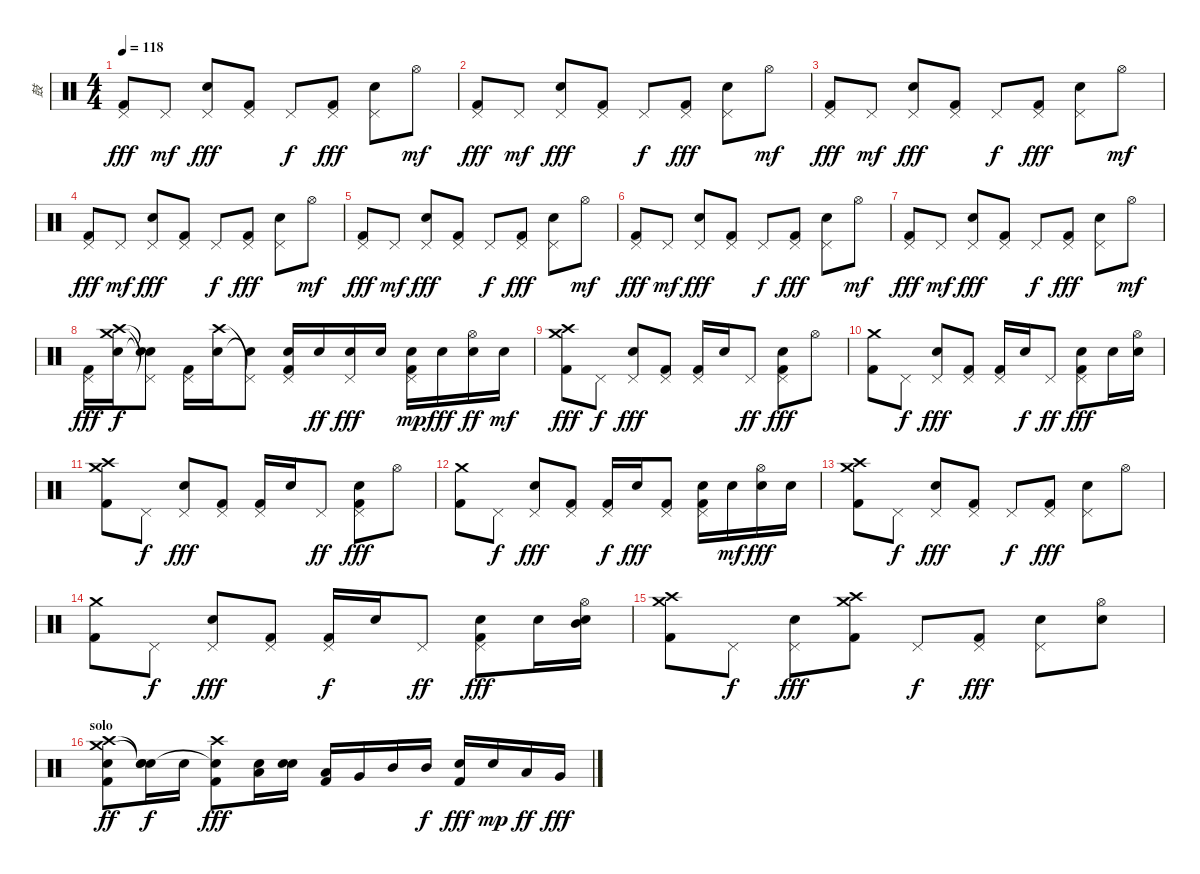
\track ("鼓" "鼓") {instrument percussion}
\staff {score}
\articulation defaults
\ts (4 4)
\tempo 118
\clef neutral
\ks c
("Pedal Hi-Hat (hit)" "Kick (hit) 2").8{dy fff} "Pedal Hi-Hat (hit)".8{dy mf} ("Pedal Hi-Hat (hit)" "Snare (hit) 2").8{dy fff} ("Pedal Hi-Hat (hit)" "Kick (hit) 2").8 "Pedal Hi-Hat (hit)".8{dy f} ("Pedal Hi-Hat (hit)" "Kick (hit) 2").8{dy fff} ("Pedal Hi-Hat (hit)" "Snare (hit) 2").8 "Hi-Hat (open)".8{dy mf} |
("Pedal Hi-Hat (hit)" "Kick (hit) 2").8{dy fff} "Pedal Hi-Hat (hit)".8{dy mf} ("Pedal Hi-Hat (hit)" "Snare (hit) 2").8{dy fff} ("Pedal Hi-Hat (hit)" "Kick (hit) 2").8 "Pedal Hi-Hat (hit)".8{dy f} ("Pedal Hi-Hat (hit)" "Kick (hit) 2").8{dy fff} ("Pedal Hi-Hat (hit)" "Snare (hit) 2").8 "Hi-Hat (open)".8{dy mf} |
("Pedal Hi-Hat (hit)" "Kick (hit) 2").8{dy fff} "Pedal Hi-Hat (hit)".8{dy mf} ("Pedal Hi-Hat (hit)" "Snare (hit) 2").8{dy fff} ("Pedal Hi-Hat (hit)" "Kick (hit) 2").8 "Pedal Hi-Hat (hit)".8{dy f} ("Pedal Hi-Hat (hit)" "Kick (hit) 2").8{dy fff} ("Pedal Hi-Hat (hit)" "Snare (hit) 2").8 "Hi-Hat (open)".8{dy mf} |
("Pedal Hi-Hat (hit)" "Kick (hit) 2").8{dy fff} "Pedal Hi-Hat (hit)".8{dy mf} ("Pedal Hi-Hat (hit)" "Snare (hit) 2").8{dy fff} ("Pedal Hi-Hat (hit)" "Kick (hit) 2").8 "Pedal Hi-Hat (hit)".8{dy f} ("Pedal Hi-Hat (hit)" "Kick (hit) 2").8{dy fff} ("Pedal Hi-Hat (hit)" "Snare (hit) 2").8 "Hi-Hat (open)".8{dy mf} |
("Pedal Hi-Hat (hit)" "Kick (hit) 2").8{dy fff} "Pedal Hi-Hat (hit)".8{dy mf} ("Pedal Hi-Hat (hit)" "Snare (hit) 2").8{dy fff} ("Pedal Hi-Hat (hit)" "Kick (hit) 2").8 "Pedal Hi-Hat (hit)".8{dy f} ("Pedal Hi-Hat (hit)" "Kick (hit) 2").8{dy fff} ("Pedal Hi-Hat (hit)" "Snare (hit) 2").8 "Hi-Hat (open)".8{dy mf} |
("Pedal Hi-Hat (hit)" "Kick (hit) 2").8{dy fff} "Pedal Hi-Hat (hit)".8{dy mf} ("Pedal Hi-Hat (hit)" "Snare (hit) 2").8{dy fff} ("Pedal Hi-Hat (hit)" "Kick (hit) 2").8 "Pedal Hi-Hat (hit)".8{dy f} ("Pedal Hi-Hat (hit)" "Kick (hit) 2").8{dy fff} ("Pedal Hi-Hat (hit)" "Snare (hit) 2").8 "Hi-Hat (open)".8{dy mf} |
("Pedal Hi-Hat (hit)" "Kick (hit) 2").8{dy fff} "Pedal Hi-Hat (hit)".8{dy mf} ("Pedal Hi-Hat (hit)" "Snare (hit) 2").8{dy fff} ("Pedal Hi-Hat (hit)" "Kick (hit) 2").8 "Pedal Hi-Hat (hit)".8{dy f} ("Pedal Hi-Hat (hit)" "Kick (hit) 2").8{dy fff} ("Pedal Hi-Hat (hit)" "Snare (hit) 2").8 "Hi-Hat (open)".8{dy mf} |
("Pedal Hi-Hat (hit)" "Kick (hit) 2").16{dy fff} ("Crash medium (hit)" "Crash high (hit)" "Snare (hit) 2").16{dy f} ("Pedal Hi-Hat (hit)"{t} "Snare (hit)"{t} "Snare (hit) 2"{t}).8 ("Pedal Hi-Hat (hit)" "Kick (hit) 2").16 ("Crash high (hit)" "Electric Snare (hit)").16 ("Pedal Hi-Hat (hit)"{t} "Snare (hit) 2"{t}).8 ("Pedal Hi-Hat (hit)" "Snare (hit) 2" "Kick (hit) 2").16 "Snare (hit) 2".16{dy ff} ("Pedal Hi-Hat (hit)" "Snare (hit) 2").16{dy fff} "Snare (hit) 2".16 ("Pedal Hi-Hat (hit)" "Snare (hit) 2" "Kick (hit) 2").16{dy mp} "Snare (hit) 2".16{dy fff} ("Hi-Hat (open)" "Snare (hit) 2").16{dy ff} "Snare (hit) 2".16{dy mf} |
("Crash medium (hit)" "Crash high (hit)" "Kick (hit) 2").8{dy fff} "Pedal Hi-Hat (hit)".8{dy f} ("Pedal Hi-Hat (hit)" "Snare (hit) 2").8{dy fff} ("Pedal Hi-Hat (hit)" "Kick (hit) 2").8 ("Pedal Hi-Hat (hit)" "Kick (hit) 2").16 "Snare (hit) 2".16 "Pedal Hi-Hat (hit)".8{dy ff} ("Pedal Hi-Hat (hit)" "Snare (hit) 2" "Kick (hit) 2").8{dy fff} "Hi-Hat (open)".8 |
("Crash medium (hit)" "Kick (hit) 2").8 "Pedal Hi-Hat (hit)".8{dy f} ("Pedal Hi-Hat (hit)" "Snare (hit) 2").8{dy fff} ("Pedal Hi-Hat (hit)" "Kick (hit) 2").8 ("Pedal Hi-Hat (hit)" "Kick (hit) 2").16 "Snare (hit) 2".16{dy f} "Pedal Hi-Hat (hit)".8{dy ff} ("Pedal Hi-Hat (hit)" "Snare (hit) 2" "Kick (hit) 2").8{dy fff} "Snare (hit) 2".16 ("Hi-Hat (open)" "Snare (hit) 2").16 |
("Crash medium (hit)" "Crash high (hit)" "Kick (hit) 2").8 "Pedal Hi-Hat (hit)".8{dy f} ("Pedal Hi-Hat (hit)" "Snare (hit) 2").8{dy fff} ("Pedal Hi-Hat (hit)" "Kick (hit) 2").8 ("Pedal Hi-Hat (hit)" "Kick (hit) 2").16 "Snare (hit) 2".16 "Pedal Hi-Hat (hit)".8{dy ff} ("Pedal Hi-Hat (hit)" "Snare (hit) 2" "Kick (hit) 2").8{dy fff} "Hi-Hat (open)".8 |
("Crash medium (hit)" "Kick (hit) 2").8 "Pedal Hi-Hat (hit)".8{dy f} ("Pedal Hi-Hat (hit)" "Snare (hit) 2").8{dy fff} ("Pedal Hi-Hat (hit)" "Kick (hit) 2").8 ("Pedal Hi-Hat (hit)" "Kick (hit) 2").16{dy f} "Snare (hit) 2".16{dy fff} ("Pedal Hi-Hat (hit)" "Kick (hit) 2").8 ("Pedal Hi-Hat (hit)" "Snare (hit) 2" "Kick (hit) 2").16 "Snare (hit) 2".16{dy mf} ("Hi-Hat (open)" "Snare (hit) 2").16{dy fff} "Snare (hit) 2".16 |
("Crash medium (hit)" "Crash high (hit)" "Kick (hit) 2").8 "Pedal Hi-Hat (hit)".8{dy f} ("Pedal Hi-Hat (hit)" "Snare (hit) 2").8{dy fff} ("Pedal Hi-Hat (hit)" "Kick (hit) 2").8 "Pedal Hi-Hat (hit)".8{dy f} ("Pedal Hi-Hat (hit)" "Kick (hit) 2").8{dy fff} ("Pedal Hi-Hat (hit)" "Snare (hit) 2").8 "Hi-Hat (open)".8 |
("Crash medium (hit)" "Kick (hit) 2").8 "Pedal Hi-Hat (hit)".8{dy f} ("Pedal Hi-Hat (hit)" "Snare (hit) 2").8{dy fff} ("Pedal Hi-Hat (hit)" "Kick (hit) 2").8 ("Pedal Hi-Hat (hit)" "Kick (hit) 2").16{dy f} "Snare (hit) 2".16 "Pedal Hi-Hat (hit)".8{dy ff} ("Pedal Hi-Hat (hit)" "Snare (hit) 2" "Kick (hit) 2").8{dy fff} "Snare (hit) 2".16 ("Hi-Hat (open)" "Electric Snare (hit)" "Mid Tom (hit)").16 |
("Crash medium (hit)" "Crash high (hit)" "Kick (hit) 2").8 "Pedal Hi-Hat (hit)".8{dy f} ("Pedal Hi-Hat (hit)" "Snare (hit) 2").8{dy fff} ("Crash medium (hit)" "Crash high (hit)" "Kick (hit) 2").8 "Pedal Hi-Hat (hit)".8{dy f} ("Pedal Hi-Hat (hit)" "Kick (hit) 2").8{dy fff} ("Pedal Hi-Hat (hit)" "Snare (hit) 2").8 ("Hi-Hat (open)" "Snare (hit) 2").8 |
\section ("" "solo")
("Crash high (hit)" "Crash medium (hit)" "Snare (hit) 2" "Kick (hit) 2").8{dy ff} ("Snare (hit)"{t} "Snare (hit)"{t} "Snare (hit) 2").16{dy f} "Snare (hit) 2".16 ("Crash high (hit)" "Snare (hit) 2"{t} "Kick (hit) 2").8{dy fff} ("Snare (hit) 2" "Low Tom (hit)").16 ("Snare (hit) 2" "Snare (hit) 2").16 ("Low Tom (hit)" "Kick (hit) 2").16 "Very Low Tom (hit)".16 "Mid Tom (hit)".16 "Mid Tom (hit)".16{dy f} ("Snare (hit) 2" "Kick (hit) 2").16{dy fff} "Snare (hit) 2".16{dy mp} "Low Tom (hit)".16{dy ff} "Very Low Tom (hit)".16{dy fff}
